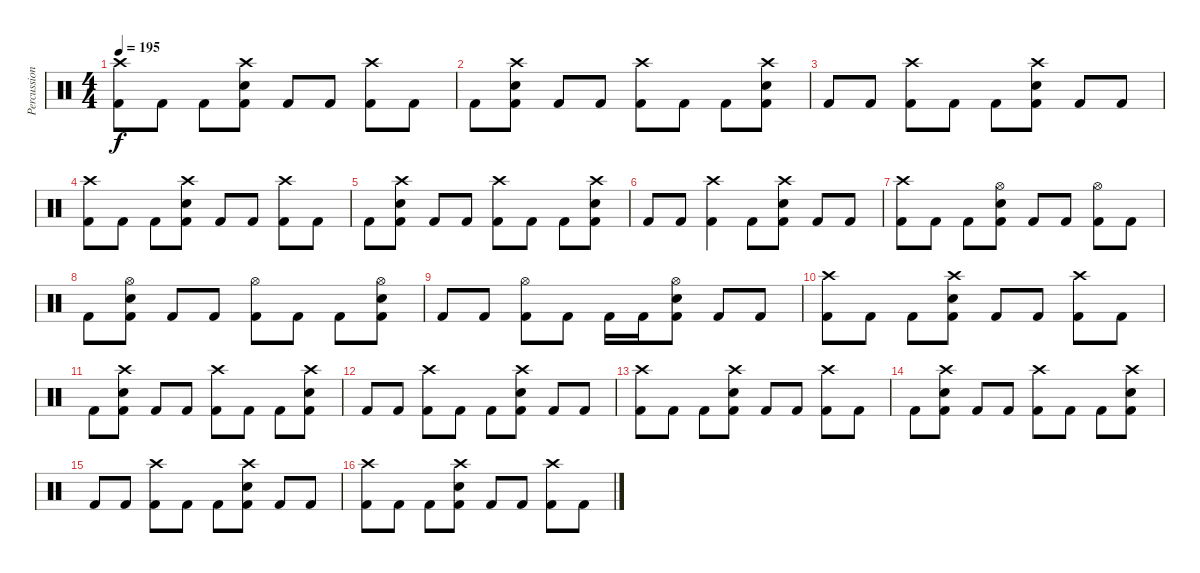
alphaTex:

\track ("Percussion" "Percussion") {instrument percussion}
\staff {score}
\articulation defaults
\ts (4 4)
\tempo 195
\clef neutral
\ks c
("Crash high (hit)" "Kick (hit) 2").8{dy f} "Kick (hit) 2".8 "Kick (hit) 2".8 ("Crash high (hit)" "Snare (hit) 2" "Kick (hit) 2").8 "Kick (hit) 2".8 "Kick (hit) 2".8 ("Crash high (hit)" "Kick (hit) 2").8 "Kick (hit) 2".8 |
"Kick (hit) 2".8 ("Crash high (hit)" "Snare (hit) 2" "Kick (hit) 2").8 "Kick (hit) 2".8 "Kick (hit) 2".8 ("Crash high (hit)" "Kick (hit) 2").8 "Kick (hit) 2".8 "Kick (hit) 2".8 ("Crash high (hit)" "Snare (hit) 2" "Kick (hit) 2").8 |
"Kick (hit) 2".8 "Kick (hit) 2".8 ("Crash high (hit)" "Kick (hit) 2").8 "Kick (hit) 2".8 "Kick (hit) 2".8 ("Crash high (hit)" "Snare (hit) 2" "Kick (hit) 2").8 "Kick (hit) 2".8 "Kick (hit) 2".8 |
("Crash high (hit)" "Kick (hit) 2").8 "Kick (hit) 2".8 "Kick (hit) 2".8 ("Crash high (hit)" "Snare (hit) 2" "Kick (hit) 2").8 "Kick (hit) 2".8 "Kick (hit) 2".8 ("Crash high (hit)" "Kick (hit) 2").8 "Kick (hit) 2".8 |
"Kick (hit) 2".8 ("Crash high (hit)" "Snare (hit) 2" "Kick (hit) 2").8 "Kick (hit) 2".8 "Kick (hit) 2".8 ("Crash high (hit)" "Kick (hit) 2").8 "Kick (hit) 2".8 "Kick (hit) 2".8 ("Crash high (hit)" "Snare (hit) 2" "Kick (hit) 2").8 |
"Kick (hit) 2".8 "Kick (hit) 2".8 ("Crash high (hit)" "Kick (hit) 2").4 "Kick (hit) 2".8 ("Crash high (hit)" "Snare (hit) 2" "Kick (hit) 2").8 "Kick (hit) 2".8 "Kick (hit) 2".8 |
("Crash high (hit)" "Kick (hit) 2").8 "Kick (hit) 2".8 "Kick (hit) 2".8 ("Hi-Hat (open)" "Snare (hit) 2" "Kick (hit) 2").8 "Kick (hit) 2".8 "Kick (hit) 2".8 ("Hi-Hat (open)" "Kick (hit) 2").8 "Kick (hit) 2".8 |
"Kick (hit) 2".8 ("Hi-Hat (open)" "Snare (hit) 2" "Kick (hit) 2").8 "Kick (hit) 2".8 "Kick (hit) 2".8 ("Hi-Hat (open)" "Kick (hit) 2").8 "Kick (hit) 2".8 "Kick (hit) 2".8 ("Hi-Hat (open)" "Snare (hit) 2" "Kick (hit) 2").8 |
"Kick (hit) 2".8 "Kick (hit) 2".8 ("Hi-Hat (open)" "Kick (hit) 2").8 "Kick (hit) 2".8 "Kick (hit) 2".16 "Kick (hit) 2".16 ("Hi-Hat (open)" "Snare (hit) 2" "Kick (hit) 2").8 "Kick (hit) 2".8 "Kick (hit) 2".8 |
("Crash high (hit)" "Kick (hit) 2").8 "Kick (hit) 2".8 "Kick (hit) 2".8 ("Crash high (hit)" "Snare (hit) 2" "Kick (hit) 2").8 "Kick (hit) 2".8 "Kick (hit) 2".8 ("Crash high (hit)" "Kick (hit) 2").8 "Kick (hit) 2".8 |
"Kick (hit) 2".8 ("Crash high (hit)" "Snare (hit) 2" "Kick (hit) 2").8 "Kick (hit) 2".8 "Kick (hit) 2".8 ("Crash high (hit)" "Kick (hit) 2").8 "Kick (hit) 2".8 "Kick (hit) 2".8 ("Crash high (hit)" "Snare (hit) 2" "Kick (hit) 2").8 |
"Kick (hit) 2".8 "Kick (hit) 2".8 ("Crash high (hit)" "Kick (hit) 2").8 "Kick (hit) 2".8 "Kick (hit) 2".8 ("Crash high (hit)" "Snare (hit) 2" "Kick (hit) 2").8 "Kick (hit) 2".8 "Kick (hit) 2".8 |
("Crash high (hit)" "Kick (hit) 2").8 "Kick (hit) 2".8 "Kick (hit) 2".8 ("Crash high (hit)" "Snare (hit) 2" "Kick (hit) 2").8 "Kick (hit) 2".8 "Kick (hit) 2".8 ("Crash high (hit)" "Kick (hit) 2").8 "Kick (hit) 2".8 |
"Kick (hit) 2".8 ("Crash high (hit)" "Snare (hit) 2" "Kick (hit) 2").8 "Kick (hit) 2".8 "Kick (hit) 2".8 ("Crash high (hit)" "Kick (hit) 2").8 "Kick (hit) 2".8 "Kick (hit) 2".8 ("Crash high (hit)" "Snare (hit) 2" "Kick (hit) 2").8 |
"Kick (hit) 2".8 "Kick (hit) 2".8 ("Crash high (hit)" "Kick (hit) 2").8 "Kick (hit) 2".8 "Kick (hit) 2".8 ("Crash high (hit)" "Snare (hit) 2" "Kick (hit) 2").8 "Kick (hit) 2".8 "Kick (hit) 2".8 |
("Crash high (hit)" "Kick (hit) 2").8 "Kick (hit) 2".8 "Kick (hit) 2".8 ("Crash high (hit)" "Snare (hit) 2" "Kick (hit) 2").8 "Kick (hit) 2".8 "Kick (hit) 2".8 ("Crash high (hit)" "Kick (hit) 2").8 "Kick (hit) 2".8
